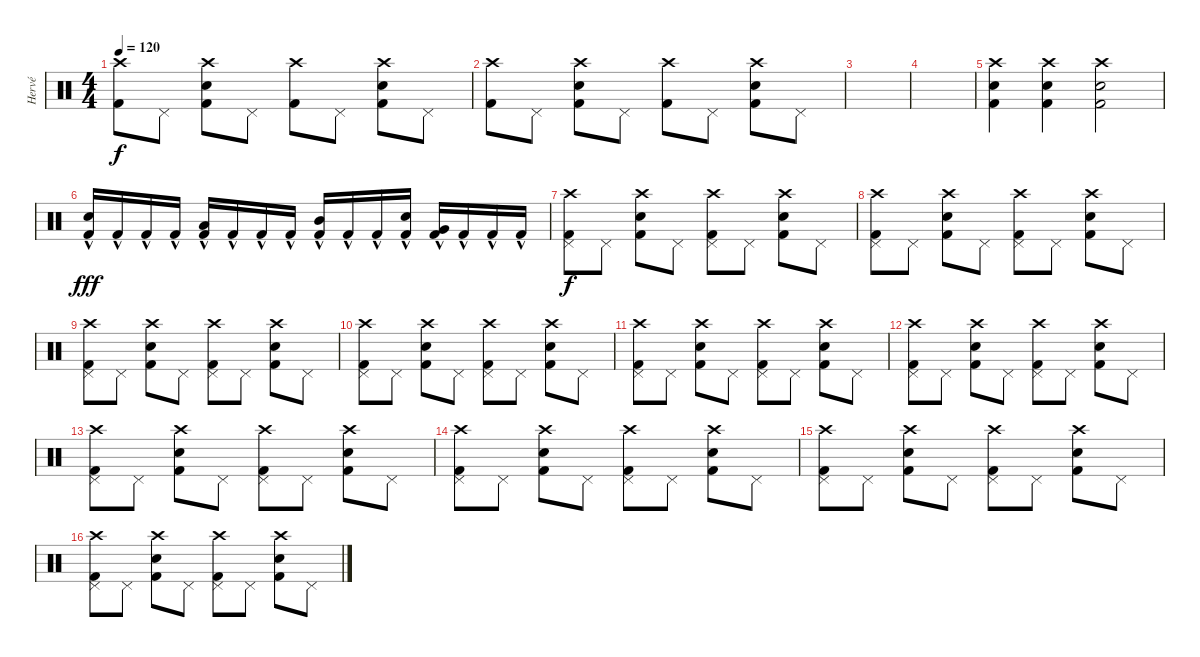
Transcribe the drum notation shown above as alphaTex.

\track ("Hervé" "Hervé") {instrument percussion}
\staff {score}
\articulation defaults
\ts (4 4)
\tempo 120
\clef neutral
\ks c
("Crash high (hit)" "Kick (hit) 2").8{dy f} "Pedal Hi-Hat (hit)".8 ("Crash high (hit)" "Electric Snare (hit)" "Kick (hit) 2").8 "Pedal Hi-Hat (hit)".8 ("Crash high (hit)" "Kick (hit) 2").8 "Pedal Hi-Hat (hit)".8 ("Crash high (hit)" "Electric Snare (hit)" "Kick (hit) 2").8 "Pedal Hi-Hat (hit)".8 |
("Crash high (hit)" "Kick (hit) 2").8 "Pedal Hi-Hat (hit)".8 ("Crash high (hit)" "Electric Snare (hit)" "Kick (hit) 2").8 "Pedal Hi-Hat (hit)".8 ("Crash high (hit)" "Kick (hit) 2").8 "Pedal Hi-Hat (hit)".8 ("Crash high (hit)" "Electric Snare (hit)" "Kick (hit) 2").8 "Pedal Hi-Hat (hit)".8 |
|
|
("Electric Snare (hit)" "Crash high (hit)" "Kick (hit) 2").4 ("Electric Snare (hit)" "Crash high (hit)" "Kick (hit) 2").4 ("Electric Snare (hit)" "Crash high (hit)" "Kick (hit) 2").2 |
("Snare (hit) 2" "Kick (hit) 2"{hac}).16{dy fff} "Kick (hit) 2"{hac}.16 "Kick (hit) 2"{hac}.16 "Kick (hit) 2"{hac}.16 ("Low Tom (hit)" "Kick (hit) 2"{hac}).16 "Kick (hit) 2"{hac}.16 "Kick (hit) 2"{hac}.16 "Kick (hit) 2"{hac}.16 ("Mid Tom (hit)" "Kick (hit) 2"{hac}).16 "Kick (hit) 2"{hac}.16 "Kick (hit) 2"{hac}.16 ("Snare (hit)" "Kick (hit) 2"{hac}).16 ("Very Low Tom (hit)" "Kick (hit) 2"{hac}).16 "Kick (hit) 2"{hac}.16 "Kick (hit) 2"{hac}.16 "Kick (hit) 2"{hac}.16 |
("Crash high (hit)" "Pedal Hi-Hat (hit)" "Kick (hit) 2").8{dy f} "Pedal Hi-Hat (hit)".8 ("Crash high (hit)" "Electric Snare (hit)" "Kick (hit) 2").8 "Pedal Hi-Hat (hit)".8 ("Crash high (hit)" "Pedal Hi-Hat (hit)" "Kick (hit) 2").8 "Pedal Hi-Hat (hit)".8 ("Crash high (hit)" "Electric Snare (hit)" "Kick (hit) 2").8 "Pedal Hi-Hat (hit)".8 |
("Crash high (hit)" "Pedal Hi-Hat (hit)" "Kick (hit) 2").8 "Pedal Hi-Hat (hit)".8 ("Crash high (hit)" "Electric Snare (hit)" "Kick (hit) 2").8 "Pedal Hi-Hat (hit)".8 ("Crash high (hit)" "Pedal Hi-Hat (hit)" "Kick (hit) 2").8 "Pedal Hi-Hat (hit)".8 ("Crash high (hit)" "Electric Snare (hit)" "Kick (hit) 2").8 "Pedal Hi-Hat (hit)".8 |
("Crash high (hit)" "Pedal Hi-Hat (hit)" "Kick (hit) 2").8 "Pedal Hi-Hat (hit)".8 ("Crash high (hit)" "Electric Snare (hit)" "Kick (hit) 2").8 "Pedal Hi-Hat (hit)".8 ("Crash high (hit)" "Pedal Hi-Hat (hit)" "Kick (hit) 2").8 "Pedal Hi-Hat (hit)".8 ("Crash high (hit)" "Electric Snare (hit)" "Kick (hit) 2").8 "Pedal Hi-Hat (hit)".8 |
("Crash high (hit)" "Pedal Hi-Hat (hit)" "Kick (hit) 2").8 "Pedal Hi-Hat (hit)".8 ("Crash high (hit)" "Electric Snare (hit)" "Kick (hit) 2").8 "Pedal Hi-Hat (hit)".8 ("Crash high (hit)" "Pedal Hi-Hat (hit)" "Kick (hit) 2").8 "Pedal Hi-Hat (hit)".8 ("Crash high (hit)" "Electric Snare (hit)" "Kick (hit) 2").8 "Pedal Hi-Hat (hit)".8 |
("Crash high (hit)" "Pedal Hi-Hat (hit)" "Kick (hit) 2").8 "Pedal Hi-Hat (hit)".8 ("Crash high (hit)" "Electric Snare (hit)" "Kick (hit) 2").8 "Pedal Hi-Hat (hit)".8 ("Crash high (hit)" "Pedal Hi-Hat (hit)" "Kick (hit) 2").8 "Pedal Hi-Hat (hit)".8 ("Crash high (hit)" "Electric Snare (hit)" "Kick (hit) 2").8 "Pedal Hi-Hat (hit)".8 |
("Crash high (hit)" "Pedal Hi-Hat (hit)" "Kick (hit) 2").8 "Pedal Hi-Hat (hit)".8 ("Crash high (hit)" "Electric Snare (hit)" "Kick (hit) 2").8 "Pedal Hi-Hat (hit)".8 ("Crash high (hit)" "Pedal Hi-Hat (hit)" "Kick (hit) 2").8 "Pedal Hi-Hat (hit)".8 ("Crash high (hit)" "Electric Snare (hit)" "Kick (hit) 2").8 "Pedal Hi-Hat (hit)".8 |
("Crash high (hit)" "Pedal Hi-Hat (hit)" "Kick (hit) 2").8 "Pedal Hi-Hat (hit)".8 ("Crash high (hit)" "Electric Snare (hit)" "Kick (hit) 2").8 "Pedal Hi-Hat (hit)".8 ("Crash high (hit)" "Pedal Hi-Hat (hit)" "Kick (hit) 2").8 "Pedal Hi-Hat (hit)".8 ("Crash high (hit)" "Electric Snare (hit)" "Kick (hit) 2").8 "Pedal Hi-Hat (hit)".8 |
("Crash high (hit)" "Pedal Hi-Hat (hit)" "Kick (hit) 2").8 "Pedal Hi-Hat (hit)".8 ("Crash high (hit)" "Electric Snare (hit)" "Kick (hit) 2").8 "Pedal Hi-Hat (hit)".8 ("Crash high (hit)" "Pedal Hi-Hat (hit)" "Kick (hit) 2").8 "Pedal Hi-Hat (hit)".8 ("Crash high (hit)" "Electric Snare (hit)" "Kick (hit) 2").8 "Pedal Hi-Hat (hit)".8 |
("Crash high (hit)" "Pedal Hi-Hat (hit)" "Kick (hit) 2").8 "Pedal Hi-Hat (hit)".8 ("Crash high (hit)" "Electric Snare (hit)" "Kick (hit) 2").8 "Pedal Hi-Hat (hit)".8 ("Crash high (hit)" "Pedal Hi-Hat (hit)" "Kick (hit) 2").8 "Pedal Hi-Hat (hit)".8 ("Crash high (hit)" "Electric Snare (hit)" "Kick (hit) 2").8 "Pedal Hi-Hat (hit)".8 |
("Crash high (hit)" "Pedal Hi-Hat (hit)" "Kick (hit) 2").8 "Pedal Hi-Hat (hit)".8 ("Crash high (hit)" "Electric Snare (hit)" "Kick (hit) 2").8 "Pedal Hi-Hat (hit)".8 ("Crash high (hit)" "Pedal Hi-Hat (hit)" "Kick (hit) 2").8 "Pedal Hi-Hat (hit)".8 ("Crash high (hit)" "Electric Snare (hit)" "Kick (hit) 2").8 "Pedal Hi-Hat (hit)".8
